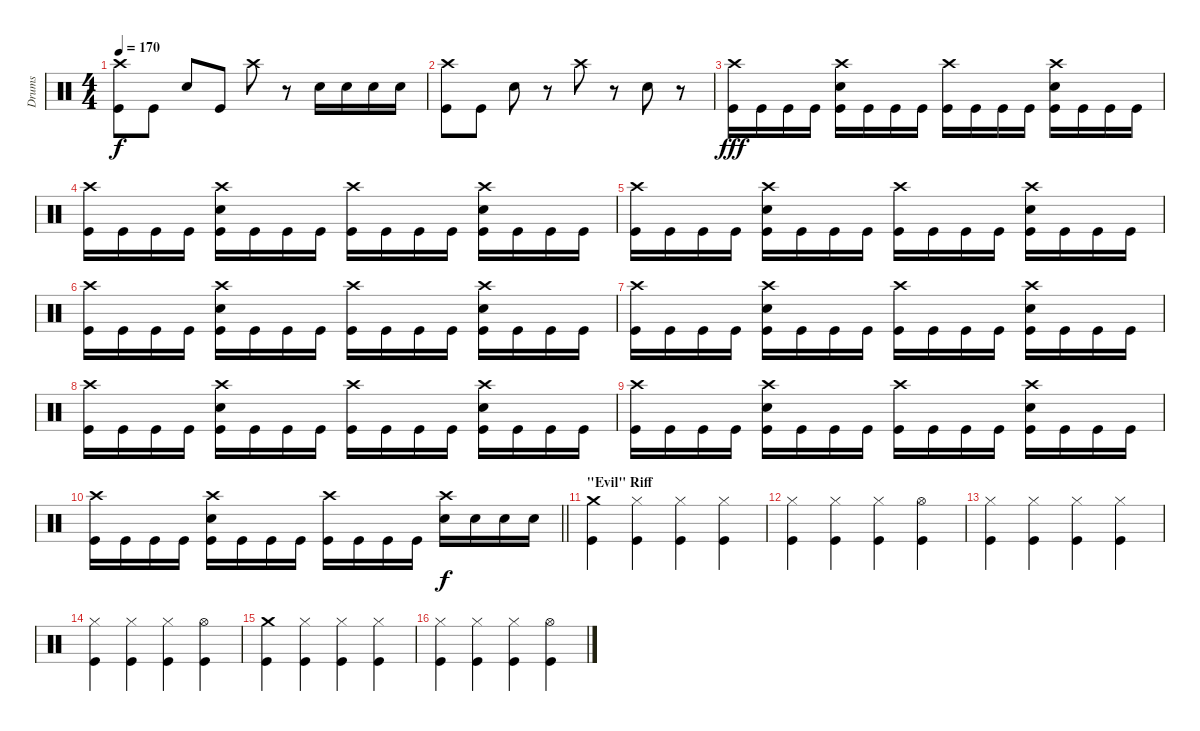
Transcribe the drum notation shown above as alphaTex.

\track ("Drums" "Drums") {instrument percussion}
\staff {score}
\articulation defaults
\ts (4 4)
\tempo 170
\clef neutral
\ks c
("Crash high (hit)" "Kick (hit)").8{dy f} "Kick (hit)".8 "Snare (hit) 2".8 "Kick (hit)".8 "Crash high (hit)".8 r.8 "Snare (hit) 2".16 "Snare (hit) 2".16 "Snare (hit) 2".16 "Snare (hit) 2".16 |
("Crash high (hit)" "Kick (hit)").8 "Kick (hit)".8 "Snare (hit) 2".8 r.8 "Crash high (hit)".8 r.8 "Snare (hit) 2".8 r.8 |
("Crash high (hit)" "Kick (hit)").16{dy fff} "Kick (hit)".16 "Kick (hit)".16 "Kick (hit)".16 ("Crash high (hit)" "Snare (hit) 2" "Kick (hit)").16 "Kick (hit)".16 "Kick (hit)".16 "Kick (hit)".16 ("Crash high (hit)" "Kick (hit)").16 "Kick (hit)".16 "Kick (hit)".16 "Kick (hit)".16 ("Crash high (hit)" "Snare (hit) 2" "Kick (hit)").16 "Kick (hit)".16 "Kick (hit)".16 "Kick (hit)".16 |
("Crash high (hit)" "Kick (hit)").16 "Kick (hit)".16 "Kick (hit)".16 "Kick (hit)".16 ("Crash high (hit)" "Snare (hit) 2" "Kick (hit)").16 "Kick (hit)".16 "Kick (hit)".16 "Kick (hit)".16 ("Crash high (hit)" "Kick (hit)").16 "Kick (hit)".16 "Kick (hit)".16 "Kick (hit)".16 ("Crash high (hit)" "Snare (hit) 2" "Kick (hit)").16 "Kick (hit)".16 "Kick (hit)".16 "Kick (hit)".16 |
("Crash high (hit)" "Kick (hit)").16 "Kick (hit)".16 "Kick (hit)".16 "Kick (hit)".16 ("Crash high (hit)" "Snare (hit) 2" "Kick (hit)").16 "Kick (hit)".16 "Kick (hit)".16 "Kick (hit)".16 ("Crash high (hit)" "Kick (hit)").16 "Kick (hit)".16 "Kick (hit)".16 "Kick (hit)".16 ("Crash high (hit)" "Snare (hit) 2" "Kick (hit)").16 "Kick (hit)".16 "Kick (hit)".16 "Kick (hit)".16 |
("Crash high (hit)" "Kick (hit)").16 "Kick (hit)".16 "Kick (hit)".16 "Kick (hit)".16 ("Crash high (hit)" "Snare (hit) 2" "Kick (hit)").16 "Kick (hit)".16 "Kick (hit)".16 "Kick (hit)".16 ("Crash high (hit)" "Kick (hit)").16 "Kick (hit)".16 "Kick (hit)".16 "Kick (hit)".16 ("Crash high (hit)" "Snare (hit) 2" "Kick (hit)").16 "Kick (hit)".16 "Kick (hit)".16 "Kick (hit)".16 |
("Crash high (hit)" "Kick (hit)").16 "Kick (hit)".16 "Kick (hit)".16 "Kick (hit)".16 ("Crash high (hit)" "Snare (hit) 2" "Kick (hit)").16 "Kick (hit)".16 "Kick (hit)".16 "Kick (hit)".16 ("Crash high (hit)" "Kick (hit)").16 "Kick (hit)".16 "Kick (hit)".16 "Kick (hit)".16 ("Crash high (hit)" "Snare (hit) 2" "Kick (hit)").16 "Kick (hit)".16 "Kick (hit)".16 "Kick (hit)".16 |
("Crash high (hit)" "Kick (hit)").16 "Kick (hit)".16 "Kick (hit)".16 "Kick (hit)".16 ("Crash high (hit)" "Snare (hit) 2" "Kick (hit)").16 "Kick (hit)".16 "Kick (hit)".16 "Kick (hit)".16 ("Crash high (hit)" "Kick (hit)").16 "Kick (hit)".16 "Kick (hit)".16 "Kick (hit)".16 ("Crash high (hit)" "Snare (hit) 2" "Kick (hit)").16 "Kick (hit)".16 "Kick (hit)".16 "Kick (hit)".16 |
("Crash high (hit)" "Kick (hit)").16 "Kick (hit)".16 "Kick (hit)".16 "Kick (hit)".16 ("Crash high (hit)" "Snare (hit) 2" "Kick (hit)").16 "Kick (hit)".16 "Kick (hit)".16 "Kick (hit)".16 ("Crash high (hit)" "Kick (hit)").16 "Kick (hit)".16 "Kick (hit)".16 "Kick (hit)".16 ("Crash high (hit)" "Snare (hit) 2" "Kick (hit)").16 "Kick (hit)".16 "Kick (hit)".16 "Kick (hit)".16 |
\barLineRight lightlight
("Crash high (hit)" "Kick (hit)").16 "Kick (hit)".16 "Kick (hit)".16 "Kick (hit)".16 ("Crash high (hit)" "Snare (hit) 2" "Kick (hit)").16 "Kick (hit)".16 "Kick (hit)".16 "Kick (hit)".16 ("Crash high (hit)" "Kick (hit)").16 "Kick (hit)".16 "Kick (hit)".16 "Kick (hit)".16 ("Crash high (hit)" "Snare (hit) 2").16{dy f} "Snare (hit) 2".16 "Snare (hit) 2".16 "Snare (hit) 2".16 |
\section ("" "\"Evil\" Riff")
("Crash medium (hit)" "Kick (hit)").4 ("Hi-Hat (closed)" "Kick (hit)").4 ("Hi-Hat (closed)" "Kick (hit)").4 ("Hi-Hat (closed)" "Kick (hit)").4 |
("Hi-Hat (closed)" "Kick (hit)").4 ("Hi-Hat (closed)" "Kick (hit)").4 ("Hi-Hat (closed)" "Kick (hit)").4 ("Hi-Hat (open)" "Kick (hit)").4 |
("Hi-Hat (closed)" "Kick (hit)").4 ("Hi-Hat (closed)" "Kick (hit)").4 ("Hi-Hat (closed)" "Kick (hit)").4 ("Hi-Hat (closed)" "Kick (hit)").4 |
("Hi-Hat (closed)" "Kick (hit)").4 ("Hi-Hat (closed)" "Kick (hit)").4 ("Hi-Hat (closed)" "Kick (hit)").4 ("Hi-Hat (open)" "Kick (hit)").4 |
("Crash medium (hit)" "Kick (hit)").4 ("Hi-Hat (closed)" "Kick (hit)").4 ("Hi-Hat (closed)" "Kick (hit)").4 ("Hi-Hat (closed)" "Kick (hit)").4 |
("Hi-Hat (closed)" "Kick (hit)").4 ("Hi-Hat (closed)" "Kick (hit)").4 ("Hi-Hat (closed)" "Kick (hit)").4 ("Hi-Hat (open)" "Kick (hit)").4
